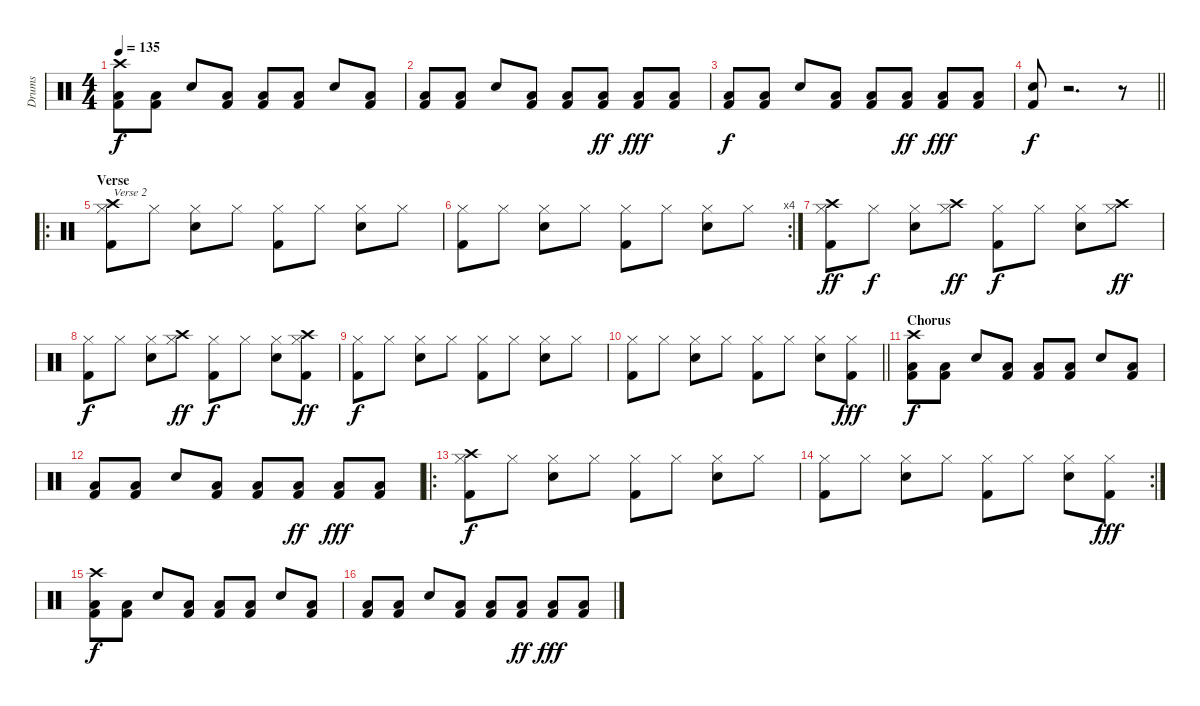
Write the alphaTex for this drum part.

\track ("Drums" "Drums") {instrument percussion}
\staff {score}
\articulation defaults
\ts (4 4)
\tempo 135
\clef neutral
\ks c
("Crash high (hit)" "Low Floor Tom (hit)" "Kick (hit) 2").8{dy f} ("Low Floor Tom (hit)" "Kick (hit) 2").8 "Electric Snare (hit)".8 ("Low Floor Tom (hit)" "Kick (hit) 2").8 ("Low Floor Tom (hit)" "Kick (hit) 2").8 ("Low Floor Tom (hit)" "Kick (hit) 2").8 "Electric Snare (hit)".8 ("Low Floor Tom (hit)" "Kick (hit) 2").8 |
("Low Floor Tom (hit)" "Kick (hit) 2").8 ("Low Floor Tom (hit)" "Kick (hit) 2").8 "Electric Snare (hit)".8 ("Low Floor Tom (hit)" "Kick (hit) 2").8 ("Low Floor Tom (hit)" "Kick (hit) 2").8 ("Low Floor Tom (hit)" "Kick (hit) 2").8{dy ff} ("Low Floor Tom (hit)" "Kick (hit) 2").8{dy fff} ("Low Floor Tom (hit)" "Kick (hit) 2").8 |
("Low Floor Tom (hit)" "Kick (hit) 2").8{dy f} ("Low Floor Tom (hit)" "Kick (hit) 2").8 "Electric Snare (hit)".8 ("Low Floor Tom (hit)" "Kick (hit) 2").8 ("Low Floor Tom (hit)" "Kick (hit) 2").8 ("Low Floor Tom (hit)" "Kick (hit) 2").8{dy ff} ("Low Floor Tom (hit)" "Kick (hit) 2").8{dy fff} ("Low Floor Tom (hit)" "Kick (hit) 2").8 |
\barLineRight lightlight
("Electric Snare (hit)" "Kick (hit) 2").8{dy f} r.2{d} r.8 |
\ro
\section ("" "Verse")
("Crash high (hit)" "Hi-Hat (closed)" "Kick (hit) 2").8{txt "Verse 2"} "Hi-Hat (closed)".8 ("Hi-Hat (closed)" "Electric Snare (hit)").8 "Hi-Hat (closed)".8 ("Hi-Hat (closed)" "Kick (hit) 2").8 "Hi-Hat (closed)".8 ("Hi-Hat (closed)" "Electric Snare (hit)").8 "Hi-Hat (closed)".8 |
\rc 4
("Hi-Hat (closed)" "Kick (hit) 2").8 "Hi-Hat (closed)".8 ("Hi-Hat (closed)" "Electric Snare (hit)").8 "Hi-Hat (closed)".8 ("Hi-Hat (closed)" "Kick (hit) 2").8 "Hi-Hat (closed)".8 ("Hi-Hat (closed)" "Electric Snare (hit)").8 "Hi-Hat (closed)".8 |
("Crash high (hit)" "Hi-Hat (closed)" "Kick (hit) 2").8{dy ff} "Hi-Hat (closed)".8{dy f} ("Hi-Hat (closed)" "Electric Snare (hit)").8 ("Crash high (hit)" "Hi-Hat (closed)").8{dy ff} ("Hi-Hat (closed)" "Kick (hit) 2").8{dy f} "Hi-Hat (closed)".8 ("Hi-Hat (closed)" "Electric Snare (hit)").8 ("Crash high (hit)" "Hi-Hat (closed)").8{dy ff} |
("Hi-Hat (closed)" "Kick (hit) 2").8{dy f} "Hi-Hat (closed)".8 ("Hi-Hat (closed)" "Electric Snare (hit)").8 ("Crash high (hit)" "Hi-Hat (closed)").8{dy ff} ("Hi-Hat (closed)" "Kick (hit) 2").8{dy f} "Hi-Hat (closed)".8 ("Hi-Hat (closed)" "Electric Snare (hit)").8 ("Crash high (hit)" "Hi-Hat (closed)" "Kick (hit) 2").8{dy ff} |
("Hi-Hat (closed)" "Kick (hit) 2").8{dy f} "Hi-Hat (closed)".8 ("Hi-Hat (closed)" "Electric Snare (hit)").8 "Hi-Hat (closed)".8 ("Hi-Hat (closed)" "Kick (hit) 2").8 "Hi-Hat (closed)".8 ("Hi-Hat (closed)" "Electric Snare (hit)").8 "Hi-Hat (closed)".8 |
\barLineRight lightlight
("Hi-Hat (closed)" "Kick (hit) 2").8 "Hi-Hat (closed)".8 ("Hi-Hat (closed)" "Electric Snare (hit)").8 "Hi-Hat (closed)".8 ("Hi-Hat (closed)" "Kick (hit) 2").8 "Hi-Hat (closed)".8 ("Hi-Hat (closed)" "Electric Snare (hit)").8 ("Hi-Hat (closed)" "Kick (hit) 2").8{dy fff} |
\section ("" "Chorus")
("Crash high (hit)" "Low Floor Tom (hit)" "Kick (hit) 2").8{dy f} ("Low Floor Tom (hit)" "Kick (hit) 2").8 "Electric Snare (hit)".8 ("Low Floor Tom (hit)" "Kick (hit) 2").8 ("Low Floor Tom (hit)" "Kick (hit) 2").8 ("Low Floor Tom (hit)" "Kick (hit) 2").8 "Electric Snare (hit)".8 ("Low Floor Tom (hit)" "Kick (hit) 2").8 |
("Low Floor Tom (hit)" "Kick (hit) 2").8 ("Low Floor Tom (hit)" "Kick (hit) 2").8 "Electric Snare (hit)".8 ("Low Floor Tom (hit)" "Kick (hit) 2").8 ("Low Floor Tom (hit)" "Kick (hit) 2").8 ("Low Floor Tom (hit)" "Kick (hit) 2").8{dy ff} ("Low Floor Tom (hit)" "Kick (hit) 2").8{dy fff} ("Low Floor Tom (hit)" "Kick (hit) 2").8 |
\ro
("Crash high (hit)" "Hi-Hat (closed)" "Kick (hit) 2").8{dy f} "Hi-Hat (closed)".8 ("Hi-Hat (closed)" "Electric Snare (hit)").8 "Hi-Hat (closed)".8 ("Hi-Hat (closed)" "Kick (hit) 2").8 "Hi-Hat (closed)".8 ("Hi-Hat (closed)" "Electric Snare (hit)").8 "Hi-Hat (closed)".8 |
\rc 2
("Hi-Hat (closed)" "Kick (hit) 2").8 "Hi-Hat (closed)".8 ("Hi-Hat (closed)" "Electric Snare (hit)").8 "Hi-Hat (closed)".8 ("Hi-Hat (closed)" "Kick (hit) 2").8 "Hi-Hat (closed)".8 ("Hi-Hat (closed)" "Electric Snare (hit)").8 ("Hi-Hat (closed)" "Kick (hit) 2").8{dy fff} |
("Crash high (hit)" "Low Floor Tom (hit)" "Kick (hit) 2").8{dy f} ("Low Floor Tom (hit)" "Kick (hit) 2").8 "Electric Snare (hit)".8 ("Low Floor Tom (hit)" "Kick (hit) 2").8 ("Low Floor Tom (hit)" "Kick (hit) 2").8 ("Low Floor Tom (hit)" "Kick (hit) 2").8 "Electric Snare (hit)".8 ("Low Floor Tom (hit)" "Kick (hit) 2").8 |
("Low Floor Tom (hit)" "Kick (hit) 2").8 ("Low Floor Tom (hit)" "Kick (hit) 2").8 "Electric Snare (hit)".8 ("Low Floor Tom (hit)" "Kick (hit) 2").8 ("Low Floor Tom (hit)" "Kick (hit) 2").8 ("Low Floor Tom (hit)" "Kick (hit) 2").8{dy ff} ("Low Floor Tom (hit)" "Kick (hit) 2").8{dy fff} ("Low Floor Tom (hit)" "Kick (hit) 2").8
